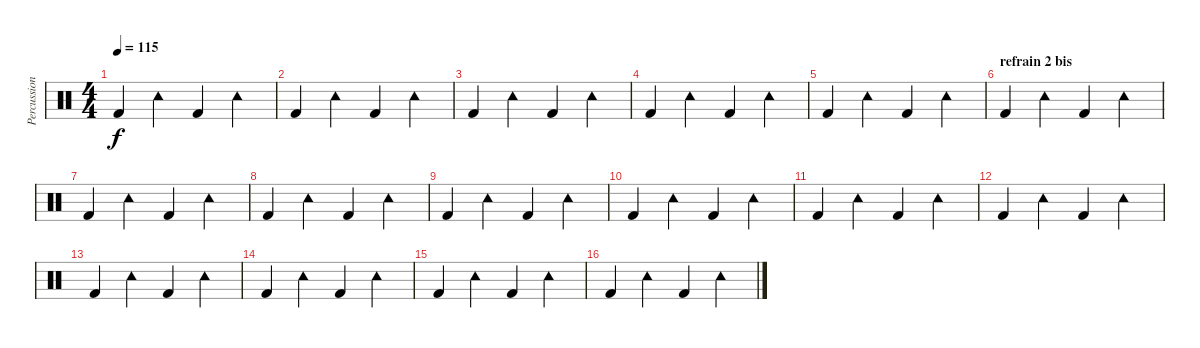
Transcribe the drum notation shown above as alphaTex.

\track ("Percussions" "Percussion") {instrument percussion}
\staff {score}
\articulation defaults
\ts (4 4)
\tempo 115
\clef neutral
\ks c "Kick (hit) 2".4{dy f} "Tambourine (hit)".4 "Kick (hit) 2".4 "Tambourine (hit)".4
|
"Kick (hit) 2".4 "Tambourine (hit)".4 "Kick (hit) 2".4 "Tambourine (hit)".4 |
"Kick (hit) 2".4 "Tambourine (hit)".4 "Kick (hit) 2".4 "Tambourine (hit)".4 |
"Kick (hit) 2".4 "Tambourine (hit)".4 "Kick (hit) 2".4 "Tambourine (hit)".4 |
"Kick (hit) 2".4 "Tambourine (hit)".4 "Kick (hit) 2".4 "Tambourine (hit)".4 |
\section ("" "refrain 2 bis")
"Kick (hit) 2".4 "Tambourine (hit)".4 "Kick (hit) 2".4 "Tambourine (hit)".4 |
"Kick (hit) 2".4 "Tambourine (hit)".4 "Kick (hit) 2".4 "Tambourine (hit)".4 |
"Kick (hit) 2".4 "Tambourine (hit)".4 "Kick (hit) 2".4 "Tambourine (hit)".4 |
"Kick (hit) 2".4 "Tambourine (hit)".4 "Kick (hit) 2".4 "Tambourine (hit)".4 |
"Kick (hit) 2".4 "Tambourine (hit)".4 "Kick (hit) 2".4 "Tambourine (hit)".4 |
"Kick (hit) 2".4 "Tambourine (hit)".4 "Kick (hit) 2".4 "Tambourine (hit)".4 |
"Kick (hit) 2".4 "Tambourine (hit)".4 "Kick (hit) 2".4 "Tambourine (hit)".4 |
"Kick (hit) 2".4 "Tambourine (hit)".4 "Kick (hit) 2".4 "Tambourine (hit)".4 |
"Kick (hit) 2".4 "Tambourine (hit)".4 "Kick (hit) 2".4 "Tambourine (hit)".4 |
"Kick (hit) 2".4 "Tambourine (hit)".4 "Kick (hit) 2".4 "Tambourine (hit)".4 |
"Kick (hit) 2".4 "Tambourine (hit)".4 "Kick (hit) 2".4 "Tambourine (hit)".4
